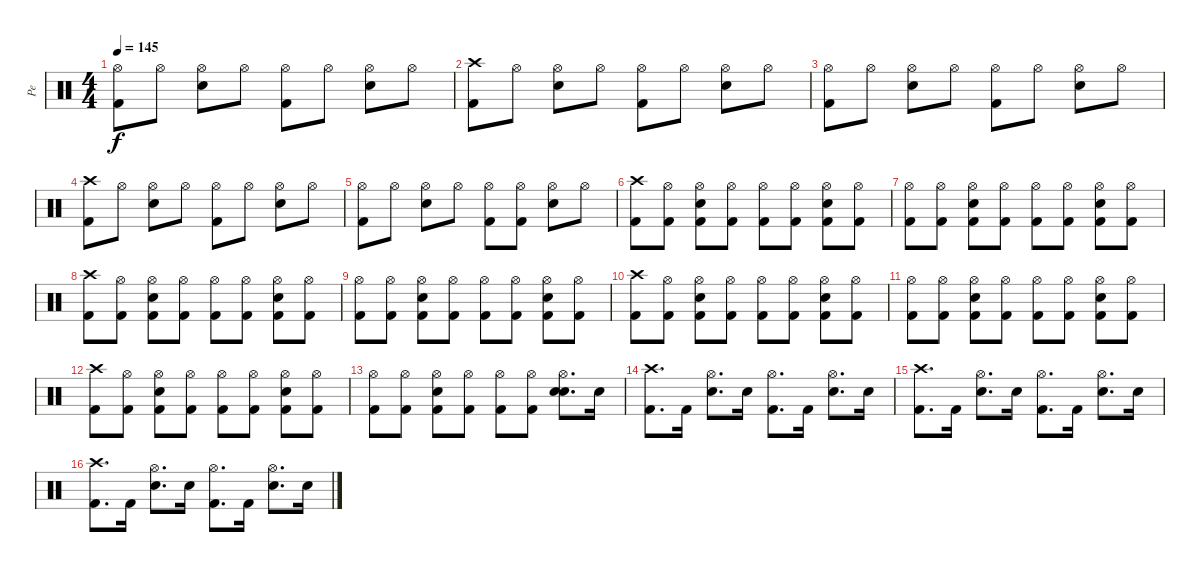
\track ("Pe" "Pe") {instrument percussion}
\staff {score}
\articulation defaults
\ts (4 4)
\tempo 145
\clef neutral
\ks c
("Kick (hit) 2" "Hi-Hat (open)").8{dy f} "Hi-Hat (open)".8 ("Snare (hit) 2" "Hi-Hat (open)").8 "Hi-Hat (open)".8 ("Kick (hit) 2" "Hi-Hat (open)").8 "Hi-Hat (open)".8 ("Snare (hit) 2" "Hi-Hat (open)").8 "Hi-Hat (open)".8 |
("Kick (hit) 2" "Crash high (hit)").8 "Hi-Hat (open)".8 ("Snare (hit) 2" "Hi-Hat (open)").8 "Hi-Hat (open)".8 ("Kick (hit) 2" "Hi-Hat (open)").8 "Hi-Hat (open)".8 ("Snare (hit) 2" "Hi-Hat (open)").8 "Hi-Hat (open)".8 |
("Kick (hit) 2" "Hi-Hat (open)").8 "Hi-Hat (open)".8 ("Snare (hit) 2" "Hi-Hat (open)").8 "Hi-Hat (open)".8 ("Kick (hit) 2" "Hi-Hat (open)").8 "Hi-Hat (open)".8 ("Snare (hit) 2" "Hi-Hat (open)").8 "Hi-Hat (open)".8 |
("Kick (hit) 2" "Crash high (hit)").8 "Hi-Hat (open)".8 ("Snare (hit) 2" "Hi-Hat (open)").8 "Hi-Hat (open)".8 ("Kick (hit) 2" "Hi-Hat (open)").8 "Hi-Hat (open)".8 ("Snare (hit) 2" "Hi-Hat (open)").8 "Hi-Hat (open)".8 |
("Kick (hit) 2" "Hi-Hat (open)").8 "Hi-Hat (open)".8 ("Snare (hit) 2" "Hi-Hat (open)").8 "Hi-Hat (open)".8 ("Kick (hit) 2" "Hi-Hat (open)").8 ("Kick (hit) 2" "Hi-Hat (open)").8 ("Snare (hit) 2" "Hi-Hat (open)").8 "Hi-Hat (open)".8 |
("Kick (hit) 2" "Crash high (hit)").8 ("Kick (hit) 2" "Hi-Hat (open)").8 ("Kick (hit) 2" "Hi-Hat (open)" "Snare (hit) 2").8 ("Kick (hit) 2" "Hi-Hat (open)").8 ("Kick (hit) 2" "Hi-Hat (open)").8 ("Kick (hit) 2" "Hi-Hat (open)").8 ("Kick (hit) 2" "Hi-Hat (open)" "Snare (hit) 2").8 ("Kick (hit) 2" "Hi-Hat (open)").8 |
("Kick (hit) 2" "Hi-Hat (open)").8 ("Kick (hit) 2" "Hi-Hat (open)").8 ("Kick (hit) 2" "Hi-Hat (open)" "Snare (hit) 2").8 ("Kick (hit) 2" "Hi-Hat (open)").8 ("Kick (hit) 2" "Hi-Hat (open)").8 ("Kick (hit) 2" "Hi-Hat (open)").8 ("Kick (hit) 2" "Hi-Hat (open)" "Snare (hit) 2").8 ("Kick (hit) 2" "Hi-Hat (open)").8 |
("Kick (hit) 2" "Crash high (hit)").8 ("Kick (hit) 2" "Hi-Hat (open)").8 ("Kick (hit) 2" "Hi-Hat (open)" "Snare (hit) 2").8 ("Kick (hit) 2" "Hi-Hat (open)").8 ("Kick (hit) 2" "Hi-Hat (open)").8 ("Kick (hit) 2" "Hi-Hat (open)").8 ("Kick (hit) 2" "Hi-Hat (open)" "Snare (hit) 2").8 ("Kick (hit) 2" "Hi-Hat (open)").8 |
("Kick (hit) 2" "Hi-Hat (open)").8 ("Kick (hit) 2" "Hi-Hat (open)").8 ("Kick (hit) 2" "Hi-Hat (open)" "Snare (hit) 2").8 ("Kick (hit) 2" "Hi-Hat (open)").8 ("Kick (hit) 2" "Hi-Hat (open)").8 ("Kick (hit) 2" "Hi-Hat (open)").8 ("Kick (hit) 2" "Hi-Hat (open)" "Snare (hit) 2").8 ("Kick (hit) 2" "Hi-Hat (open)").8 |
("Kick (hit) 2" "Crash high (hit)").8 ("Kick (hit) 2" "Hi-Hat (open)").8 ("Kick (hit) 2" "Hi-Hat (open)" "Snare (hit) 2").8 ("Kick (hit) 2" "Hi-Hat (open)").8 ("Kick (hit) 2" "Hi-Hat (open)").8 ("Kick (hit) 2" "Hi-Hat (open)").8 ("Kick (hit) 2" "Hi-Hat (open)" "Snare (hit) 2").8 ("Kick (hit) 2" "Hi-Hat (open)").8 |
("Kick (hit) 2" "Hi-Hat (open)").8 ("Kick (hit) 2" "Hi-Hat (open)").8 ("Kick (hit) 2" "Hi-Hat (open)" "Snare (hit) 2").8 ("Kick (hit) 2" "Hi-Hat (open)").8 ("Kick (hit) 2" "Hi-Hat (open)").8 ("Kick (hit) 2" "Hi-Hat (open)").8 ("Kick (hit) 2" "Hi-Hat (open)" "Snare (hit) 2").8 ("Kick (hit) 2" "Hi-Hat (open)").8 |
("Kick (hit) 2" "Crash high (hit)").8 ("Kick (hit) 2" "Hi-Hat (open)").8 ("Kick (hit) 2" "Hi-Hat (open)" "Snare (hit) 2").8 ("Kick (hit) 2" "Hi-Hat (open)").8 ("Kick (hit) 2" "Hi-Hat (open)").8 ("Kick (hit) 2" "Hi-Hat (open)").8 ("Kick (hit) 2" "Hi-Hat (open)" "Snare (hit) 2").8 ("Kick (hit) 2" "Hi-Hat (open)").8 |
("Kick (hit) 2" "Hi-Hat (open)").8 ("Kick (hit) 2" "Hi-Hat (open)").8 ("Kick (hit) 2" "Hi-Hat (open)" "Snare (hit) 2").8 ("Kick (hit) 2" "Hi-Hat (open)").8 ("Kick (hit) 2" "Hi-Hat (open)").8 ("Kick (hit) 2" "Hi-Hat (open)").8 ("Snare (hit) 2" "Hi-Hat (open)" "Snare (hit) 2").8{d} "Snare (hit) 2".16 |
("Kick (hit) 2" "Crash high (hit)").8{d} "Kick (hit) 2".16 ("Snare (hit) 2" "Hi-Hat (open)").8{d} "Snare (hit) 2".16 ("Kick (hit) 2" "Hi-Hat (open)").8{d} "Kick (hit) 2".16 ("Snare (hit) 2" "Hi-Hat (open)").8{d} "Snare (hit) 2".16 |
("Kick (hit) 2" "Crash high (hit)").8{d} "Kick (hit) 2".16 ("Snare (hit) 2" "Hi-Hat (open)").8{d} "Snare (hit) 2".16 ("Kick (hit) 2" "Hi-Hat (open)").8{d} "Kick (hit) 2".16 ("Snare (hit) 2" "Hi-Hat (open)").8{d} "Snare (hit) 2".16 |
("Kick (hit) 2" "Crash high (hit)").8{d} "Kick (hit) 2".16 ("Snare (hit) 2" "Hi-Hat (open)").8{d} "Snare (hit) 2".16 ("Kick (hit) 2" "Hi-Hat (open)").8{d} "Kick (hit) 2".16 ("Snare (hit) 2" "Hi-Hat (open)").8{d} "Snare (hit) 2".16
